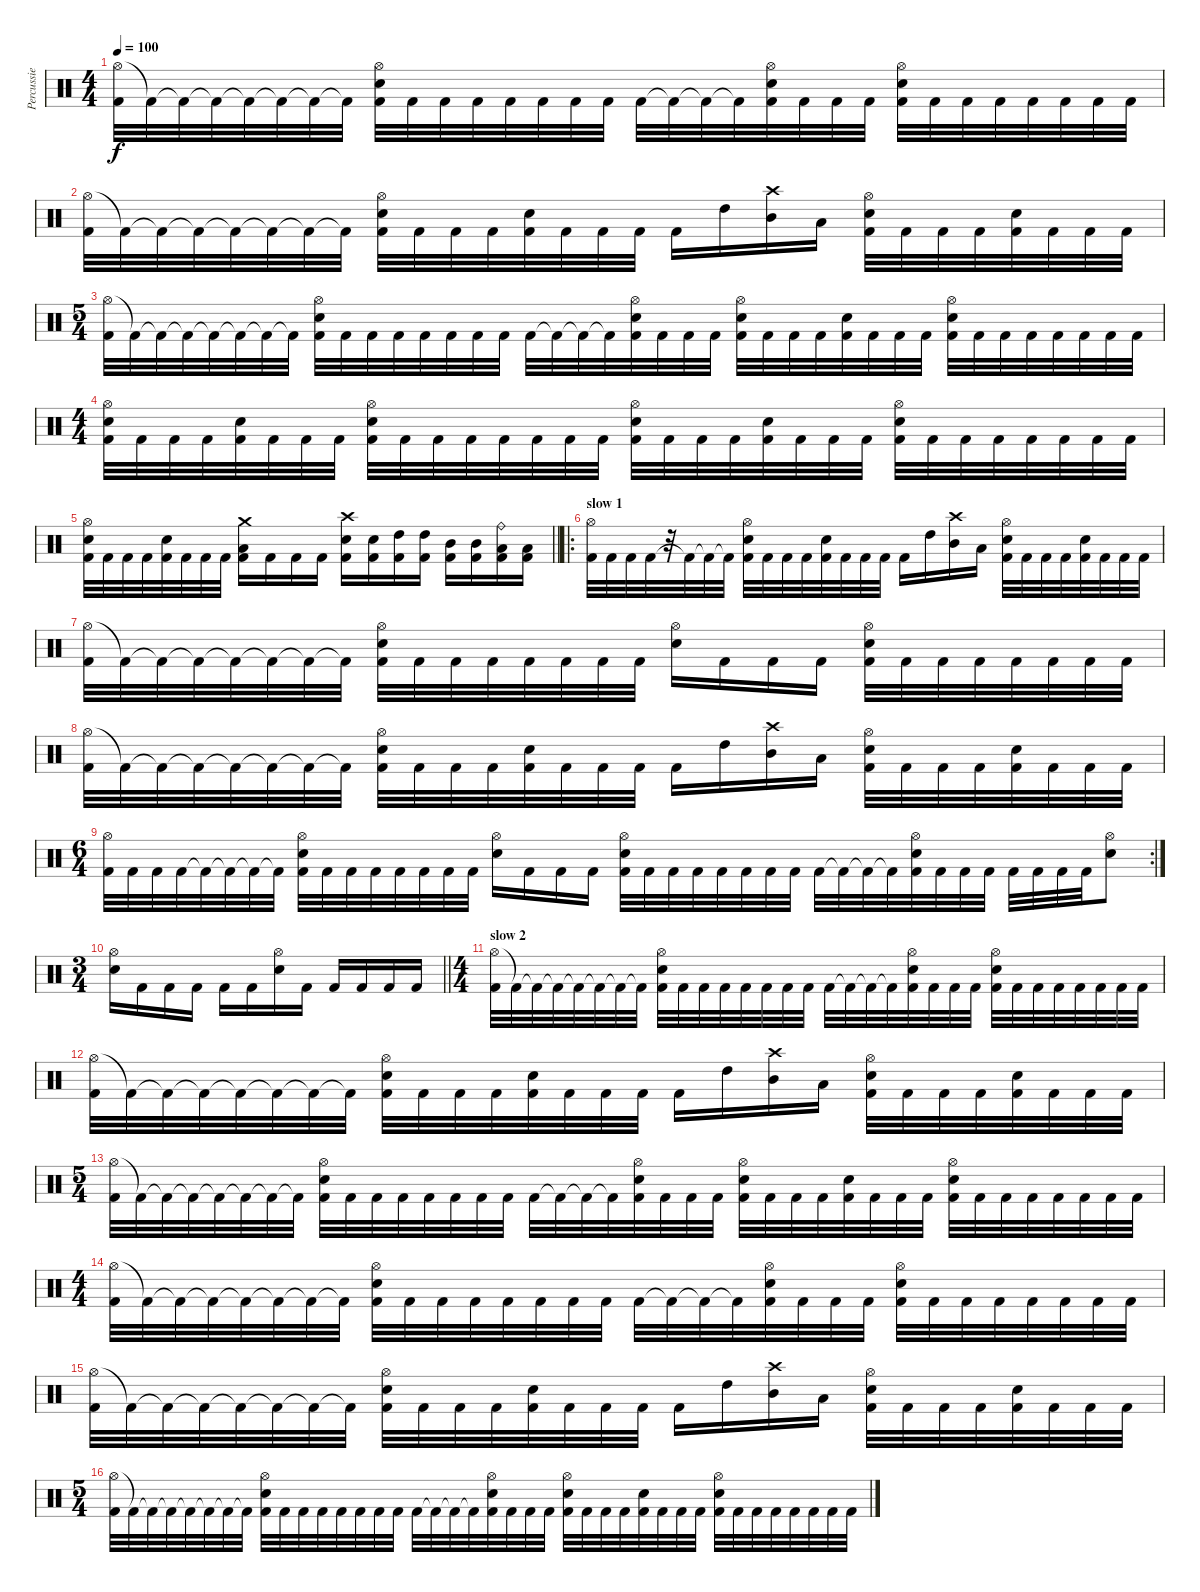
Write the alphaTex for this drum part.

\track ("Percussie" "Percussie") {instrument percussion}
\staff {score}
\articulation defaults
\ts (4 4)
\tempo 100
\clef neutral
\ks c
("Hi-Hat (open)" "Kick (hit) 2").32{dy f} "Kick (hit) 2"{t}.32 "Kick (hit) 2"{t}.32 "Kick (hit) 2"{t}.32 "Kick (hit) 2"{t}.32 "Kick (hit) 2"{t}.32 "Kick (hit) 2"{t}.32 "Kick (hit) 2"{t}.32 ("Hi-Hat (open)" "Electric Snare (hit)" "Kick (hit) 2").32 "Kick (hit) 2".32 "Kick (hit) 2".32 "Kick (hit) 2".32 "Kick (hit) 2".32 "Kick (hit) 2".32 "Kick (hit) 2".32 "Kick (hit) 2".32 "Kick (hit) 2".32 "Kick (hit) 2"{t}.32 "Kick (hit) 2"{t}.32 "Kick (hit) 2"{t}.32 ("Hi-Hat (open)" "Electric Snare (hit)" "Kick (hit) 2").32 "Kick (hit) 2".32 "Kick (hit) 2".32 "Kick (hit) 2".32 ("Hi-Hat (open)" "Electric Snare (hit)" "Kick (hit) 2").32 "Kick (hit) 2".32 "Kick (hit) 2".32 "Kick (hit) 2".32 "Kick (hit) 2".32 "Kick (hit) 2".32 "Kick (hit) 2".32 "Kick (hit) 2".32 |
("Hi-Hat (open)" "Kick (hit) 2").32 "Kick (hit) 2"{t}.32 "Kick (hit) 2"{t}.32 "Kick (hit) 2"{t}.32 "Kick (hit) 2"{t}.32 "Kick (hit) 2"{t}.32 "Kick (hit) 2"{t}.32 "Kick (hit) 2"{t}.32 ("Hi-Hat (open)" "Electric Snare (hit)" "Kick (hit) 2").32 "Kick (hit) 2".32 "Kick (hit) 2".32 "Kick (hit) 2".32 ("Electric Snare (hit)" "Kick (hit) 2").32 "Kick (hit) 2".32 "Kick (hit) 2".32 "Kick (hit) 2".32 "Kick (hit) 2".16 "High Tom (hit)".16 ("Crash high (hit)" "Mid Tom (hit)").16 "Low Tom (hit)".16 ("Hi-Hat (open)" "Electric Snare (hit)" "Kick (hit) 2").32 "Kick (hit) 2".32 "Kick (hit) 2".32 "Kick (hit) 2".32 ("Electric Snare (hit)" "Kick (hit) 2").32 "Kick (hit) 2".32 "Kick (hit) 2".32 "Kick (hit) 2".32 |
\ts (5 4)
("Hi-Hat (open)" "Kick (hit) 2").32 "Kick (hit) 2"{t}.32 "Kick (hit) 2"{t}.32 "Kick (hit) 2"{t}.32 "Kick (hit) 2"{t}.32 "Kick (hit) 2"{t}.32 "Kick (hit) 2"{t}.32 "Kick (hit) 2"{t}.32 ("Hi-Hat (open)" "Electric Snare (hit)" "Kick (hit) 2").32 "Kick (hit) 2".32 "Kick (hit) 2".32 "Kick (hit) 2".32 "Kick (hit) 2".32 "Kick (hit) 2".32 "Kick (hit) 2".32 "Kick (hit) 2".32 "Kick (hit) 2".32 "Kick (hit) 2"{t}.32 "Kick (hit) 2"{t}.32 "Kick (hit) 2"{t}.32 ("Hi-Hat (open)" "Electric Snare (hit)" "Kick (hit) 2").32 "Kick (hit) 2".32 "Kick (hit) 2".32 "Kick (hit) 2".32 ("Hi-Hat (open)" "Electric Snare (hit)" "Kick (hit) 2").32 "Kick (hit) 2".32 "Kick (hit) 2".32 "Kick (hit) 2".32 ("Electric Snare (hit)" "Kick (hit) 2").32 "Kick (hit) 2".32 "Kick (hit) 2".32 "Kick (hit) 2".32 ("Hi-Hat (open)" "Electric Snare (hit)" "Kick (hit) 2").32 "Kick (hit) 2".32 "Kick (hit) 2".32 "Kick (hit) 2".32 "Kick (hit) 2".32 "Kick (hit) 2".32 "Kick (hit) 2".32 "Kick (hit) 2".32 |
\ts (4 4)
("Hi-Hat (open)" "Electric Snare (hit)" "Kick (hit) 2").32 "Kick (hit) 2".32 "Kick (hit) 2".32 "Kick (hit) 2".32 ("Electric Snare (hit)" "Kick (hit) 2").32 "Kick (hit) 2".32 "Kick (hit) 2".32 "Kick (hit) 2".32 ("Hi-Hat (open)" "Electric Snare (hit)" "Kick (hit) 2").32 "Kick (hit) 2".32 "Kick (hit) 2".32 "Kick (hit) 2".32 "Kick (hit) 2".32 "Kick (hit) 2".32 "Kick (hit) 2".32 "Kick (hit) 2".32 ("Hi-Hat (open)" "Electric Snare (hit)" "Kick (hit) 2").32 "Kick (hit) 2".32 "Kick (hit) 2".32 "Kick (hit) 2".32 ("Electric Snare (hit)" "Kick (hit) 2").32 "Kick (hit) 2".32 "Kick (hit) 2".32 "Kick (hit) 2".32 ("Hi-Hat (open)" "Electric Snare (hit)" "Kick (hit) 2").32 "Kick (hit) 2".32 "Kick (hit) 2".32 "Kick (hit) 2".32 "Kick (hit) 2".32 "Kick (hit) 2".32 "Kick (hit) 2".32 "Kick (hit) 2".32 |
\barLineRight lightlight
("Hi-Hat (open)" "Electric Snare (hit)" "Kick (hit) 2").32 "Kick (hit) 2".32 "Kick (hit) 2".32 "Kick (hit) 2".32 ("Electric Snare (hit)" "Kick (hit) 2").32 "Kick (hit) 2".32 "Kick (hit) 2".32 "Kick (hit) 2".32 ("Crash medium (hit)" "Low Tom (hit)" "Kick (hit) 2").16 "Kick (hit) 2".16 "Kick (hit) 2".16 "Kick (hit) 2".16 ("Crash high (hit)" "Electric Snare (hit)" "Kick (hit) 2").16 ("Electric Snare (hit)" "Kick (hit) 2").16 ("High Tom (hit)" "Kick (hit) 2").16 ("High Tom (hit)" "Kick (hit) 2").16 ("Mid Tom (hit)" "Kick (hit) 2").16 ("Mid Tom (hit)" "Kick (hit) 2").16 ("Ride (bell)" "Low Tom (hit)" "Kick (hit) 2").16 ("Low Tom (hit)" "Kick (hit) 2").16 |
\ro
\section ("" "slow 1")
("Hi-Hat (open)" "Kick (hit) 2").32 "Kick (hit) 2".32 "Kick (hit) 2".32 "Kick (hit) 2".32 r.32 "Kick (hit) 2"{t}.32 "Kick (hit) 2"{t}.32 "Kick (hit) 2"{t}.32 ("Hi-Hat (open)" "Electric Snare (hit)" "Kick (hit) 2").32 "Kick (hit) 2".32 "Kick (hit) 2".32 "Kick (hit) 2".32 ("Electric Snare (hit)" "Kick (hit) 2").32 "Kick (hit) 2".32 "Kick (hit) 2".32 "Kick (hit) 2".32 "Kick (hit) 2".16 "High Tom (hit)".16 ("Crash high (hit)" "Mid Tom (hit)").16 "Low Tom (hit)".16 ("Hi-Hat (open)" "Electric Snare (hit)" "Kick (hit) 2").32 "Kick (hit) 2".32 "Kick (hit) 2".32 "Kick (hit) 2".32 ("Electric Snare (hit)" "Kick (hit) 2").32 "Kick (hit) 2".32 "Kick (hit) 2".32 "Kick (hit) 2".32 |
("Hi-Hat (open)" "Kick (hit) 2").32 "Kick (hit) 2"{t}.32 "Kick (hit) 2"{t}.32 "Kick (hit) 2"{t}.32 "Kick (hit) 2"{t}.32 "Kick (hit) 2"{t}.32 "Kick (hit) 2"{t}.32 "Kick (hit) 2"{t}.32 ("Hi-Hat (open)" "Electric Snare (hit)" "Kick (hit) 2").32 "Kick (hit) 2".32 "Kick (hit) 2".32 "Kick (hit) 2".32 "Kick (hit) 2".32 "Kick (hit) 2".32 "Kick (hit) 2".32 "Kick (hit) 2".32 ("Hi-Hat (open)" "Electric Snare (hit)").16 "Kick (hit) 2".16 "Kick (hit) 2".16 "Kick (hit) 2".16 ("Hi-Hat (open)" "Electric Snare (hit)" "Kick (hit) 2").32 "Kick (hit) 2".32 "Kick (hit) 2".32 "Kick (hit) 2".32 "Kick (hit) 2".32 "Kick (hit) 2".32 "Kick (hit) 2".32 "Kick (hit) 2".32 |
("Hi-Hat (open)" "Kick (hit) 2").32 "Kick (hit) 2"{t}.32 "Kick (hit) 2"{t}.32 "Kick (hit) 2"{t}.32 "Kick (hit) 2"{t}.32 "Kick (hit) 2"{t}.32 "Kick (hit) 2"{t}.32 "Kick (hit) 2"{t}.32 ("Hi-Hat (open)" "Electric Snare (hit)" "Kick (hit) 2").32 "Kick (hit) 2".32 "Kick (hit) 2".32 "Kick (hit) 2".32 ("Electric Snare (hit)" "Kick (hit) 2").32 "Kick (hit) 2".32 "Kick (hit) 2".32 "Kick (hit) 2".32 "Kick (hit) 2".16 "High Tom (hit)".16 ("Crash high (hit)" "Mid Tom (hit)").16 "Low Tom (hit)".16 ("Hi-Hat (open)" "Electric Snare (hit)" "Kick (hit) 2").32 "Kick (hit) 2".32 "Kick (hit) 2".32 "Kick (hit) 2".32 ("Electric Snare (hit)" "Kick (hit) 2").32 "Kick (hit) 2".32 "Kick (hit) 2".32 "Kick (hit) 2".32 |
\rc 2
\ts (6 4)
("Hi-Hat (open)" "Kick (hit) 2").32 "Kick (hit) 2".32 "Kick (hit) 2".32 "Kick (hit) 2".32 "Kick (hit) 2"{t}.32 "Kick (hit) 2"{t}.32 "Kick (hit) 2"{t}.32 "Kick (hit) 2"{t}.32 ("Hi-Hat (open)" "Electric Snare (hit)" "Kick (hit) 2").32 "Kick (hit) 2".32 "Kick (hit) 2".32 "Kick (hit) 2".32 "Kick (hit) 2".32 "Kick (hit) 2".32 "Kick (hit) 2".32 "Kick (hit) 2".32 ("Hi-Hat (open)" "Electric Snare (hit)").16 "Kick (hit) 2".16 "Kick (hit) 2".16 "Kick (hit) 2".16 ("Hi-Hat (open)" "Electric Snare (hit)" "Kick (hit) 2").32 "Kick (hit) 2".32 "Kick (hit) 2".32 "Kick (hit) 2".32 "Kick (hit) 2".32 "Kick (hit) 2".32 "Kick (hit) 2".32 "Kick (hit) 2".32 "Kick (hit) 2".32 "Kick (hit) 2"{t}.32 "Kick (hit) 2"{t}.32 "Kick (hit) 2"{t}.32 ("Hi-Hat (open)" "Electric Snare (hit)" "Kick (hit) 2").32 "Kick (hit) 2".32 "Kick (hit) 2".32 "Kick (hit) 2".32 "Kick (hit) 2".32 "Kick (hit) 2".32 "Kick (hit) 2".32 "Kick (hit) 2".32 ("Hi-Hat (open)" "Electric Snare (hit)").8 |
\ts (3 4)
\barLineRight lightlight
("Hi-Hat (open)" "Electric Snare (hit)").16 "Kick (hit) 2".16 "Kick (hit) 2".16 "Kick (hit) 2".16 "Kick (hit) 2".16 "Kick (hit) 2".16 ("Hi-Hat (open)" "Electric Snare (hit)").16 "Kick (hit) 2".16 "Kick (hit) 2".16 "Kick (hit) 2".16 "Kick (hit) 2".16 "Kick (hit) 2".16 |
\ts (4 4)
\section ("" "slow 2")
("Hi-Hat (open)" "Kick (hit) 2").32 "Kick (hit) 2"{t}.32 "Kick (hit) 2"{t}.32 "Kick (hit) 2"{t}.32 "Kick (hit) 2"{t}.32 "Kick (hit) 2"{t}.32 "Kick (hit) 2"{t}.32 "Kick (hit) 2"{t}.32 ("Hi-Hat (open)" "Electric Snare (hit)" "Kick (hit) 2").32 "Kick (hit) 2".32 "Kick (hit) 2".32 "Kick (hit) 2".32 "Kick (hit) 2".32 "Kick (hit) 2".32 "Kick (hit) 2".32 "Kick (hit) 2".32 "Kick (hit) 2".32 "Kick (hit) 2"{t}.32 "Kick (hit) 2"{t}.32 "Kick (hit) 2"{t}.32 ("Hi-Hat (open)" "Electric Snare (hit)" "Kick (hit) 2").32 "Kick (hit) 2".32 "Kick (hit) 2".32 "Kick (hit) 2".32 ("Hi-Hat (open)" "Electric Snare (hit)" "Kick (hit) 2").32 "Kick (hit) 2".32 "Kick (hit) 2".32 "Kick (hit) 2".32 "Kick (hit) 2".32 "Kick (hit) 2".32 "Kick (hit) 2".32 "Kick (hit) 2".32 |
("Hi-Hat (open)" "Kick (hit) 2").32 "Kick (hit) 2"{t}.32 "Kick (hit) 2"{t}.32 "Kick (hit) 2"{t}.32 "Kick (hit) 2"{t}.32 "Kick (hit) 2"{t}.32 "Kick (hit) 2"{t}.32 "Kick (hit) 2"{t}.32 ("Hi-Hat (open)" "Electric Snare (hit)" "Kick (hit) 2").32 "Kick (hit) 2".32 "Kick (hit) 2".32 "Kick (hit) 2".32 ("Electric Snare (hit)" "Kick (hit) 2").32 "Kick (hit) 2".32 "Kick (hit) 2".32 "Kick (hit) 2".32 "Kick (hit) 2".16 "High Tom (hit)".16 ("Crash high (hit)" "Mid Tom (hit)").16 "Low Tom (hit)".16 ("Hi-Hat (open)" "Electric Snare (hit)" "Kick (hit) 2").32 "Kick (hit) 2".32 "Kick (hit) 2".32 "Kick (hit) 2".32 ("Electric Snare (hit)" "Kick (hit) 2").32 "Kick (hit) 2".32 "Kick (hit) 2".32 "Kick (hit) 2".32 |
\ts (5 4)
("Hi-Hat (open)" "Kick (hit) 2").32 "Kick (hit) 2"{t}.32 "Kick (hit) 2"{t}.32 "Kick (hit) 2"{t}.32 "Kick (hit) 2"{t}.32 "Kick (hit) 2"{t}.32 "Kick (hit) 2"{t}.32 "Kick (hit) 2"{t}.32 ("Hi-Hat (open)" "Electric Snare (hit)" "Kick (hit) 2").32 "Kick (hit) 2".32 "Kick (hit) 2".32 "Kick (hit) 2".32 "Kick (hit) 2".32 "Kick (hit) 2".32 "Kick (hit) 2".32 "Kick (hit) 2".32 "Kick (hit) 2".32 "Kick (hit) 2"{t}.32 "Kick (hit) 2"{t}.32 "Kick (hit) 2"{t}.32 ("Hi-Hat (open)" "Electric Snare (hit)" "Kick (hit) 2").32 "Kick (hit) 2".32 "Kick (hit) 2".32 "Kick (hit) 2".32 ("Hi-Hat (open)" "Electric Snare (hit)" "Kick (hit) 2").32 "Kick (hit) 2".32 "Kick (hit) 2".32 "Kick (hit) 2".32 ("Electric Snare (hit)" "Kick (hit) 2").32 "Kick (hit) 2".32 "Kick (hit) 2".32 "Kick (hit) 2".32 ("Hi-Hat (open)" "Electric Snare (hit)" "Kick (hit) 2").32 "Kick (hit) 2".32 "Kick (hit) 2".32 "Kick (hit) 2".32 "Kick (hit) 2".32 "Kick (hit) 2".32 "Kick (hit) 2".32 "Kick (hit) 2".32 |
\ts (4 4)
("Hi-Hat (open)" "Kick (hit) 2").32 "Kick (hit) 2"{t}.32 "Kick (hit) 2"{t}.32 "Kick (hit) 2"{t}.32 "Kick (hit) 2"{t}.32 "Kick (hit) 2"{t}.32 "Kick (hit) 2"{t}.32 "Kick (hit) 2"{t}.32 ("Hi-Hat (open)" "Electric Snare (hit)" "Kick (hit) 2").32 "Kick (hit) 2".32 "Kick (hit) 2".32 "Kick (hit) 2".32 "Kick (hit) 2".32 "Kick (hit) 2".32 "Kick (hit) 2".32 "Kick (hit) 2".32 "Kick (hit) 2".32 "Kick (hit) 2"{t}.32 "Kick (hit) 2"{t}.32 "Kick (hit) 2"{t}.32 ("Hi-Hat (open)" "Electric Snare (hit)" "Kick (hit) 2").32 "Kick (hit) 2".32 "Kick (hit) 2".32 "Kick (hit) 2".32 ("Hi-Hat (open)" "Electric Snare (hit)" "Kick (hit) 2").32 "Kick (hit) 2".32 "Kick (hit) 2".32 "Kick (hit) 2".32 "Kick (hit) 2".32 "Kick (hit) 2".32 "Kick (hit) 2".32 "Kick (hit) 2".32 |
("Hi-Hat (open)" "Kick (hit) 2").32 "Kick (hit) 2"{t}.32 "Kick (hit) 2"{t}.32 "Kick (hit) 2"{t}.32 "Kick (hit) 2"{t}.32 "Kick (hit) 2"{t}.32 "Kick (hit) 2"{t}.32 "Kick (hit) 2"{t}.32 ("Hi-Hat (open)" "Electric Snare (hit)" "Kick (hit) 2").32 "Kick (hit) 2".32 "Kick (hit) 2".32 "Kick (hit) 2".32 ("Electric Snare (hit)" "Kick (hit) 2").32 "Kick (hit) 2".32 "Kick (hit) 2".32 "Kick (hit) 2".32 "Kick (hit) 2".16 "High Tom (hit)".16 ("Crash high (hit)" "Mid Tom (hit)").16 "Low Tom (hit)".16 ("Hi-Hat (open)" "Electric Snare (hit)" "Kick (hit) 2").32 "Kick (hit) 2".32 "Kick (hit) 2".32 "Kick (hit) 2".32 ("Electric Snare (hit)" "Kick (hit) 2").32 "Kick (hit) 2".32 "Kick (hit) 2".32 "Kick (hit) 2".32 |
\ts (5 4)
("Hi-Hat (open)" "Kick (hit) 2").32 "Kick (hit) 2"{t}.32 "Kick (hit) 2"{t}.32 "Kick (hit) 2"{t}.32 "Kick (hit) 2"{t}.32 "Kick (hit) 2"{t}.32 "Kick (hit) 2"{t}.32 "Kick (hit) 2"{t}.32 ("Hi-Hat (open)" "Electric Snare (hit)" "Kick (hit) 2").32 "Kick (hit) 2".32 "Kick (hit) 2".32 "Kick (hit) 2".32 "Kick (hit) 2".32 "Kick (hit) 2".32 "Kick (hit) 2".32 "Kick (hit) 2".32 "Kick (hit) 2".32 "Kick (hit) 2"{t}.32 "Kick (hit) 2"{t}.32 "Kick (hit) 2"{t}.32 ("Hi-Hat (open)" "Electric Snare (hit)" "Kick (hit) 2").32 "Kick (hit) 2".32 "Kick (hit) 2".32 "Kick (hit) 2".32 ("Hi-Hat (open)" "Electric Snare (hit)" "Kick (hit) 2").32 "Kick (hit) 2".32 "Kick (hit) 2".32 "Kick (hit) 2".32 ("Electric Snare (hit)" "Kick (hit) 2").32 "Kick (hit) 2".32 "Kick (hit) 2".32 "Kick (hit) 2".32 ("Hi-Hat (open)" "Electric Snare (hit)" "Kick (hit) 2").32 "Kick (hit) 2".32 "Kick (hit) 2".32 "Kick (hit) 2".32 "Kick (hit) 2".32 "Kick (hit) 2".32 "Kick (hit) 2".32 "Kick (hit) 2".32
